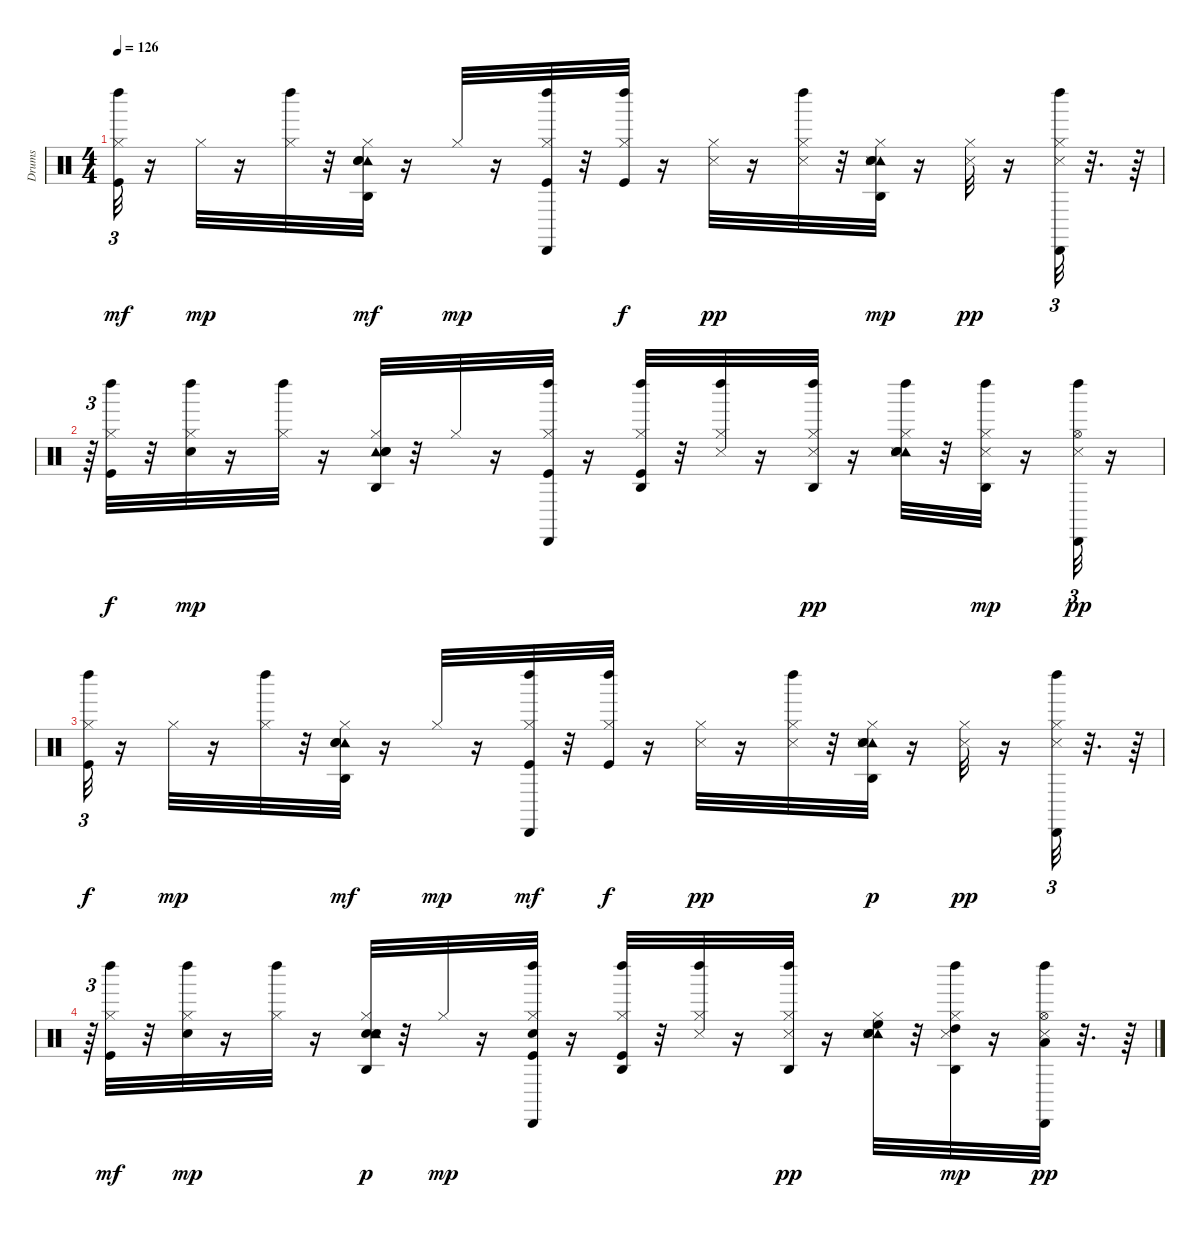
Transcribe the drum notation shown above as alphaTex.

\track ("Drums" "Drums") {instrument percussion}
\staff {score}
\articulation defaults
\ts (4 4)
\tempo 126
\clef neutral
\ks c
("Kick (hit)" "Hi-Hat (closed)" "Left Maraca (hit)").32{tu (3 2) dy mf} r.16 "Hi-Hat (closed)".32{dy mp} r.16 ("Hi-Hat (closed)" "Left Maraca (hit)").32 r.32 ("Hi-Hat (closed)" "Tambourine (hit)" "Agogo high (hit)" "Snare (hit) 2" "Hand Clap (hit)").32{dy mf} r.16 "Hi-Hat (closed)".32{dy mp} r.16 ("Cabasa (hit)" "Kick (hit)" "Hi-Hat (closed)" "Left Maraca (hit)").32 r.32 ("Hi-Hat (closed)" "Kick (hit)" "Left Maraca (hit)").32{dy f} r.16 ("Hi-Hat (closed)" "Snare (side stick) 3").32{dy pp} r.16 ("Hi-Hat (closed)" "Left Maraca (hit)" "Snare (side stick) 3").32 r.32 ("Hi-Hat (closed)" "Tambourine (hit)" "Hand Clap (hit)" "Snare (hit) 2" "Snare (side stick) 3" "Agogo high (hit)").32{dy mp} r.16 ("Hi-Hat (closed)" "Snare (side stick) 3").32{dy pp} r.16 ("Cabasa (hit)" "Hi-Hat (closed)" "Left Maraca (hit)" "Snare (side stick) 3").32{tu (3 2)} r.32{d} r.64 |
r.64{tu (3 2)} ("Kick (hit)" "Hi-Hat (closed)" "Left Maraca (hit)").32{dy f} r.32 ("Electric Snare (hit)" "Hi-Hat (closed)" "Left Maraca (hit)").32{dy mp} r.16 ("Left Maraca (hit)" "Hi-Hat (closed)").32 r.16 ("Tambourine (hit)" "Snare (hit) 2" "Hi-Hat (closed)" "Agogo high (hit)" "Hand Clap (hit)").32 r.32 "Hi-Hat (closed)".32 r.16 ("Kick (hit)" "Hi-Hat (closed)" "Left Maraca (hit)" "Cabasa (hit)").32 r.16 ("Kick (hit)" "Hi-Hat (closed)" "Left Maraca (hit)" "Agogo high (hit)").32 r.32 ("Hi-Hat (closed)" "Snare (side stick) 3" "Left Maraca (hit)").32 r.16 ("Hi-Hat (closed)" "Left Maraca (hit)" "Agogo high (hit)" "Snare (side stick) 3").32{dy pp} r.16 ("Hi-Hat (closed)" "Tambourine (hit)" "Hand Clap (hit)" "Snare (hit) 2" "Snare (side stick) 3" "Left Maraca (hit)").32 r.32 ("Hi-Hat (closed)" "Left Maraca (hit)" "Snare (side stick) 3" "Agogo high (hit)").32{dy mp} r.16 ("Hi-Hat (open)" "Left Maraca (hit)" "Cabasa (hit)" "Snare (side stick) 3").32{tu (3 2) dy pp} r.16 |
("Kick (hit)" "Hi-Hat (closed)" "Left Maraca (hit)").32{tu (3 2) dy f} r.16 "Hi-Hat (closed)".32{dy mp} r.16 ("Hi-Hat (closed)" "Left Maraca (hit)").32 r.32 ("Hi-Hat (closed)" "Tambourine (hit)" "Agogo high (hit)" "Snare (hit) 2" "Hand Clap (hit)").32{dy mf} r.16 "Hi-Hat (closed)".32{dy mp} r.16 ("Cabasa (hit)" "Kick (hit)" "Hi-Hat (closed)" "Left Maraca (hit)").32{dy mf} r.32 ("Hi-Hat (closed)" "Kick (hit)" "Left Maraca (hit)").32{dy f} r.16 ("Hi-Hat (closed)" "Snare (side stick) 3").32{dy pp} r.16 ("Hi-Hat (closed)" "Left Maraca (hit)" "Snare (side stick) 3").32 r.32 ("Hi-Hat (closed)" "Tambourine (hit)" "Hand Clap (hit)" "Snare (hit) 2" "Snare (side stick) 3" "Agogo high (hit)").32{dy p} r.16 ("Hi-Hat (closed)" "Snare (side stick) 3").32{dy pp} r.16 ("Cabasa (hit)" "Hi-Hat (closed)" "Left Maraca (hit)" "Snare (side stick) 3").32{tu (3 2)} r.32{d} r.64 |
r.64{tu (3 2)} ("Kick (hit)" "Hi-Hat (closed)" "Left Maraca (hit)").32{dy mf} r.32 ("Electric Snare (hit)" "Hi-Hat (closed)" "Left Maraca (hit)").32{dy mp} r.16 ("Left Maraca (hit)" "Hi-Hat (closed)").32 r.16 ("Snare (hit) 2" "Tambourine (hit)" "Hi-Hat (closed)" "Agogo high (hit)" "Hand Clap (hit)").32{dy p} r.32 "Hi-Hat (closed)".32{dy mp} r.16 ("Kick (hit)" "Snare (hit) 2" "Hi-Hat (closed)" "Left Maraca (hit)" "Cabasa (hit)").32 r.16 ("Kick (hit)" "Hi-Hat (closed)" "Left Maraca (hit)" "Agogo high (hit)").32 r.32 ("Hi-Hat (closed)" "Snare (side stick) 3" "Left Maraca (hit)").32 r.16 ("Hi-Hat (closed)" "Left Maraca (hit)" "Agogo high (hit)" "Snare (side stick) 3").32{dy pp} r.16 ("Hi-Hat (closed)" "Tambourine (hit)" "Hand Clap (hit)" "Snare (hit) 2" "High Floor Tom (hit)" "Snare (side stick) 3").32 r.32 ("Hi-Hat (closed)" "Left Maraca (hit)" "High Tom (hit)" "Snare (side stick) 3" "Agogo high (hit)").32{dy mp} r.16 ("Hi-Hat (open)" "Left Maraca (hit)" "Cabasa (hit)" "Low Tom (hit)" "Snare (side stick) 3").32{dy pp} r.32{d} r.64
